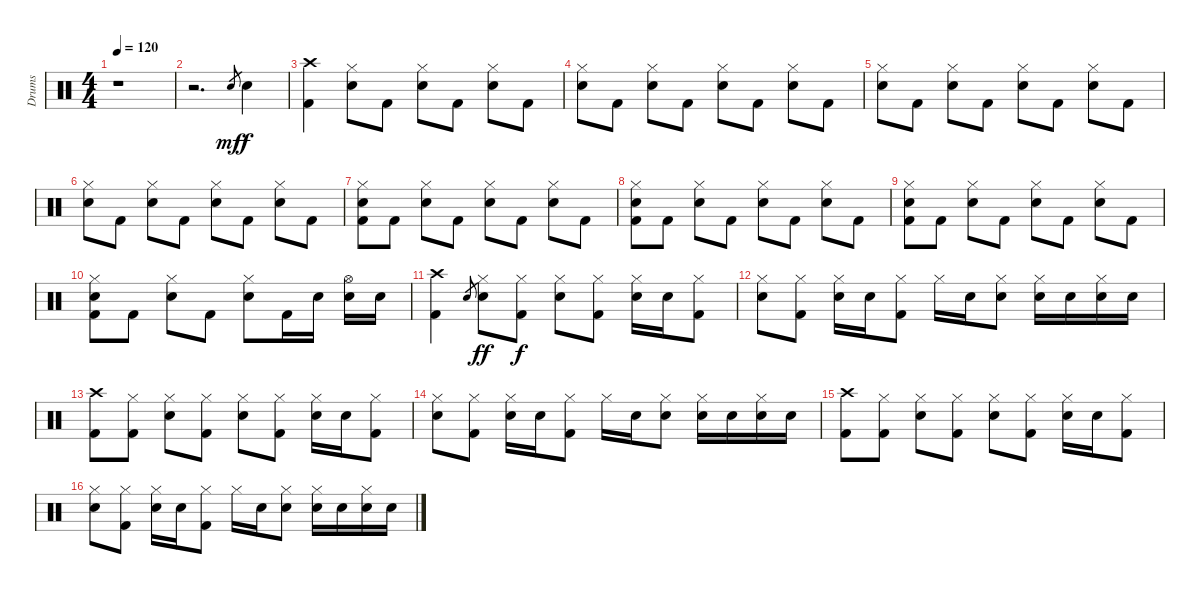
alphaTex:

\track ("Drums" "Drums") {instrument percussion}
\staff {score}
\articulation defaults
\ts (4 4)
\tempo 120
\clef neutral
\ks c
r.1{dy mf} |
r.2{d} "Electric Snare (hit)".8{gr} "Electric Snare (hit)".4{dy f} |
("Crash high (hit)" "Kick (hit) 2").4 ("Hi-Hat (closed)" "Electric Snare (hit)").8 "Kick (hit) 2".8 ("Hi-Hat (closed)" "Electric Snare (hit)").8 "Kick (hit) 2".8 ("Hi-Hat (closed)" "Electric Snare (hit)").8 "Kick (hit) 2".8 |
("Hi-Hat (closed)" "Electric Snare (hit)").8 "Kick (hit) 2".8 ("Hi-Hat (closed)" "Electric Snare (hit)").8 "Kick (hit) 2".8 ("Hi-Hat (closed)" "Electric Snare (hit)").8 "Kick (hit) 2".8 ("Hi-Hat (closed)" "Electric Snare (hit)").8 "Kick (hit) 2".8 |
("Hi-Hat (closed)" "Electric Snare (hit)").8 "Kick (hit) 2".8 ("Hi-Hat (closed)" "Electric Snare (hit)").8 "Kick (hit) 2".8 ("Hi-Hat (closed)" "Electric Snare (hit)").8 "Kick (hit) 2".8 ("Hi-Hat (closed)" "Electric Snare (hit)").8 "Kick (hit) 2".8 |
("Hi-Hat (closed)" "Electric Snare (hit)").8 "Kick (hit) 2".8 ("Hi-Hat (closed)" "Electric Snare (hit)").8 "Kick (hit) 2".8 ("Hi-Hat (closed)" "Electric Snare (hit)").8 "Kick (hit) 2".8 ("Hi-Hat (closed)" "Electric Snare (hit)").8 "Kick (hit) 2".8 |
("Hi-Hat (closed)" "Electric Snare (hit)" "Kick (hit) 2").8 "Kick (hit) 2".8 ("Hi-Hat (closed)" "Electric Snare (hit)").8 "Kick (hit) 2".8 ("Hi-Hat (closed)" "Electric Snare (hit)").8 "Kick (hit) 2".8 ("Hi-Hat (closed)" "Electric Snare (hit)").8 "Kick (hit) 2".8 |
("Hi-Hat (closed)" "Electric Snare (hit)" "Kick (hit) 2").8 "Kick (hit) 2".8 ("Hi-Hat (closed)" "Electric Snare (hit)").8 "Kick (hit) 2".8 ("Hi-Hat (closed)" "Electric Snare (hit)").8 "Kick (hit) 2".8 ("Hi-Hat (closed)" "Electric Snare (hit)").8 "Kick (hit) 2".8 |
("Hi-Hat (closed)" "Electric Snare (hit)" "Kick (hit) 2").8 "Kick (hit) 2".8 ("Hi-Hat (closed)" "Electric Snare (hit)").8 "Kick (hit) 2".8 ("Hi-Hat (closed)" "Electric Snare (hit)").8 "Kick (hit) 2".8 ("Hi-Hat (closed)" "Electric Snare (hit)").8 "Kick (hit) 2".8 |
("Hi-Hat (closed)" "Electric Snare (hit)" "Kick (hit) 2").8 "Kick (hit) 2".8 ("Hi-Hat (closed)" "Electric Snare (hit)").8 "Kick (hit) 2".8 ("Hi-Hat (closed)" "Electric Snare (hit)").8 "Kick (hit) 2".16 "Electric Snare (hit)".16 ("Hi-Hat (open)" "Electric Snare (hit)").16 "Electric Snare (hit)".16 |
("Crash high (hit)" "Kick (hit) 2").4 "Electric Snare (hit)".8{gr} ("Hi-Hat (closed)" "Electric Snare (hit)").8{dy ff} ("Hi-Hat (closed)" "Kick (hit) 2").8{dy f} ("Hi-Hat (closed)" "Electric Snare (hit)").8 ("Hi-Hat (closed)" "Kick (hit) 2").8 ("Hi-Hat (closed)" "Electric Snare (hit)").16 "Electric Snare (hit)".16 ("Hi-Hat (closed)" "Kick (hit) 2").8 |
("Hi-Hat (closed)" "Electric Snare (hit)").8 ("Hi-Hat (closed)" "Kick (hit) 2").8 ("Hi-Hat (closed)" "Electric Snare (hit)").16 "Electric Snare (hit)".16 ("Hi-Hat (closed)" "Kick (hit) 2").8 "Hi-Hat (closed)".16 "Electric Snare (hit)".16 ("Hi-Hat (closed)" "Electric Snare (hit)").8 ("Hi-Hat (closed)" "Electric Snare (hit)").16 "Electric Snare (hit)".16 ("Hi-Hat (closed)" "Electric Snare (hit)").16 "Electric Snare (hit)".16 |
("Crash high (hit)" "Kick (hit) 2").8 ("Hi-Hat (closed)" "Kick (hit) 2").8 ("Hi-Hat (closed)" "Electric Snare (hit)").8 ("Hi-Hat (closed)" "Kick (hit) 2").8 ("Hi-Hat (closed)" "Electric Snare (hit)").8 ("Hi-Hat (closed)" "Kick (hit) 2").8 ("Hi-Hat (closed)" "Electric Snare (hit)").16 "Electric Snare (hit)".16 ("Hi-Hat (closed)" "Kick (hit) 2").8 |
("Hi-Hat (closed)" "Electric Snare (hit)").8 ("Hi-Hat (closed)" "Kick (hit) 2").8 ("Hi-Hat (closed)" "Electric Snare (hit)").16 "Electric Snare (hit)".16 ("Hi-Hat (closed)" "Kick (hit) 2").8 "Hi-Hat (closed)".16 "Electric Snare (hit)".16 ("Hi-Hat (closed)" "Electric Snare (hit)").8 ("Hi-Hat (closed)" "Electric Snare (hit)").16 "Electric Snare (hit)".16 ("Hi-Hat (closed)" "Electric Snare (hit)").16 "Electric Snare (hit)".16 |
("Crash high (hit)" "Kick (hit) 2").8 ("Hi-Hat (closed)" "Kick (hit) 2").8 ("Hi-Hat (closed)" "Electric Snare (hit)").8 ("Hi-Hat (closed)" "Kick (hit) 2").8 ("Hi-Hat (closed)" "Electric Snare (hit)").8 ("Hi-Hat (closed)" "Kick (hit) 2").8 ("Hi-Hat (closed)" "Electric Snare (hit)").16 "Electric Snare (hit)".16 ("Hi-Hat (closed)" "Kick (hit) 2").8 |
("Hi-Hat (closed)" "Electric Snare (hit)").8 ("Hi-Hat (closed)" "Kick (hit) 2").8 ("Hi-Hat (closed)" "Electric Snare (hit)").16 "Electric Snare (hit)".16 ("Hi-Hat (closed)" "Kick (hit) 2").8 "Hi-Hat (closed)".16 "Electric Snare (hit)".16 ("Hi-Hat (closed)" "Electric Snare (hit)").8 ("Hi-Hat (closed)" "Electric Snare (hit)").16 "Electric Snare (hit)".16 ("Hi-Hat (closed)" "Electric Snare (hit)").16 "Electric Snare (hit)".16
